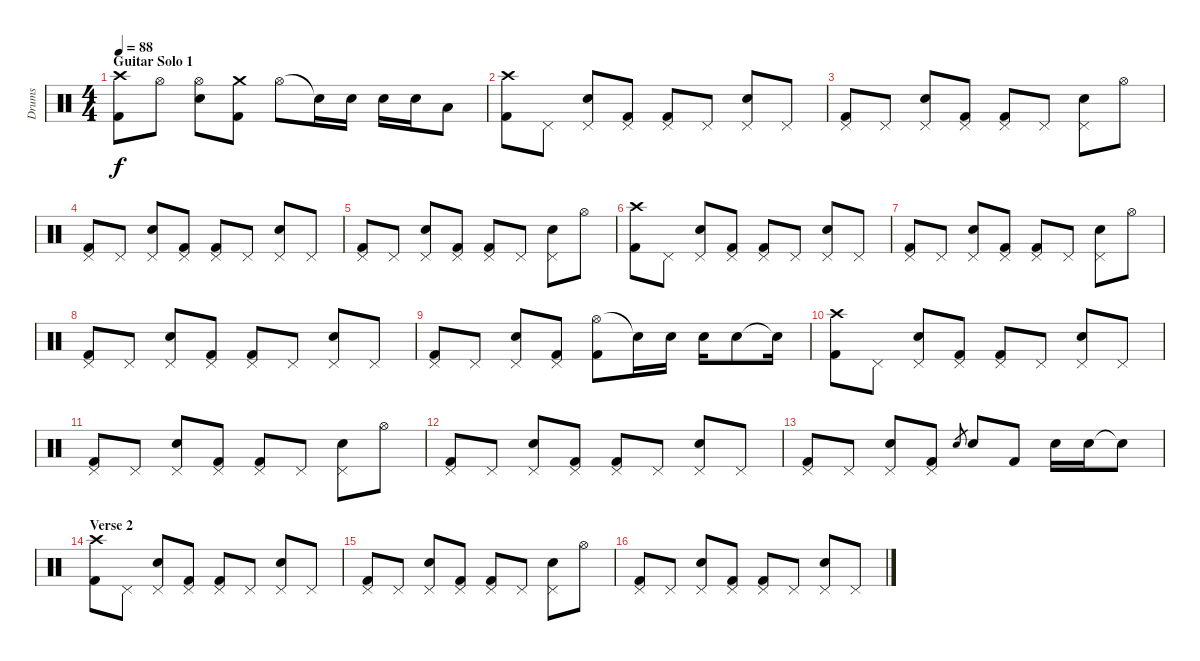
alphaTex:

\track ("Drums" "Drums") {instrument percussion}
\staff {score}
\articulation defaults
\ts (4 4)
\section ("" "Guitar Solo 1")
\tempo 88
\clef neutral
\ks c
("Crash high (hit)" "Kick (hit) 2").8{dy f} "Hi-Hat (open)".8 ("Hi-Hat (open)" "Electric Snare (hit)").8 ("Crash medium (hit)" "Kick (hit) 2").8 "Hi-Hat (open)".8 "Snare (hit)"{t}.16 "Electric Snare (hit)".16 "Electric Snare (hit)".16 "Electric Snare (hit)".16 "Low Tom (hit)".8 |
("Crash high (hit)" "Kick (hit) 2").8 "Pedal Hi-Hat (hit)".8 ("Pedal Hi-Hat (hit)" "Electric Snare (hit)").8 ("Pedal Hi-Hat (hit)" "Kick (hit) 2").8 ("Pedal Hi-Hat (hit)" "Kick (hit) 2").8 "Pedal Hi-Hat (hit)".8 ("Pedal Hi-Hat (hit)" "Electric Snare (hit)").8 "Pedal Hi-Hat (hit)".8 |
("Pedal Hi-Hat (hit)" "Kick (hit) 2").8 "Pedal Hi-Hat (hit)".8 ("Pedal Hi-Hat (hit)" "Electric Snare (hit)").8 ("Pedal Hi-Hat (hit)" "Kick (hit) 2").8 ("Pedal Hi-Hat (hit)" "Kick (hit) 2").8 "Pedal Hi-Hat (hit)".8 ("Pedal Hi-Hat (hit)" "Electric Snare (hit)").8 "Hi-Hat (open)".8 |
("Pedal Hi-Hat (hit)" "Kick (hit) 2").8 "Pedal Hi-Hat (hit)".8 ("Pedal Hi-Hat (hit)" "Electric Snare (hit)").8 ("Pedal Hi-Hat (hit)" "Kick (hit) 2").8 ("Pedal Hi-Hat (hit)" "Kick (hit) 2").8 "Pedal Hi-Hat (hit)".8 ("Pedal Hi-Hat (hit)" "Electric Snare (hit)").8 "Pedal Hi-Hat (hit)".8 |
("Pedal Hi-Hat (hit)" "Kick (hit) 2").8 "Pedal Hi-Hat (hit)".8 ("Pedal Hi-Hat (hit)" "Electric Snare (hit)").8 ("Pedal Hi-Hat (hit)" "Kick (hit) 2").8 ("Pedal Hi-Hat (hit)" "Kick (hit) 2").8 "Pedal Hi-Hat (hit)".8 ("Pedal Hi-Hat (hit)" "Electric Snare (hit)").8 "Hi-Hat (open)".8 |
("Crash high (hit)" "Kick (hit) 2").8 "Pedal Hi-Hat (hit)".8 ("Pedal Hi-Hat (hit)" "Electric Snare (hit)").8 ("Pedal Hi-Hat (hit)" "Kick (hit) 2").8 ("Pedal Hi-Hat (hit)" "Kick (hit) 2").8 "Pedal Hi-Hat (hit)".8 ("Pedal Hi-Hat (hit)" "Electric Snare (hit)").8 "Pedal Hi-Hat (hit)".8 |
("Pedal Hi-Hat (hit)" "Kick (hit) 2").8 "Pedal Hi-Hat (hit)".8 ("Pedal Hi-Hat (hit)" "Electric Snare (hit)").8 ("Pedal Hi-Hat (hit)" "Kick (hit) 2").8 ("Pedal Hi-Hat (hit)" "Kick (hit) 2").8 "Pedal Hi-Hat (hit)".8 ("Pedal Hi-Hat (hit)" "Electric Snare (hit)").8 "Hi-Hat (open)".8 |
("Pedal Hi-Hat (hit)" "Kick (hit) 2").8 "Pedal Hi-Hat (hit)".8 ("Pedal Hi-Hat (hit)" "Electric Snare (hit)").8 ("Pedal Hi-Hat (hit)" "Kick (hit) 2").8 ("Pedal Hi-Hat (hit)" "Kick (hit) 2").8 "Pedal Hi-Hat (hit)".8 ("Pedal Hi-Hat (hit)" "Electric Snare (hit)").8 "Pedal Hi-Hat (hit)".8 |
("Pedal Hi-Hat (hit)" "Kick (hit) 2").8 "Pedal Hi-Hat (hit)".8 ("Pedal Hi-Hat (hit)" "Electric Snare (hit)").8 ("Pedal Hi-Hat (hit)" "Kick (hit) 2").8 ("Hi-Hat (open)" "Kick (hit) 2").8 "Snare (hit)"{t}.16 "Electric Snare (hit)".16 "Electric Snare (hit)".16 "Electric Snare (hit)".8 "Snare (hit)"{t}.16 |
("Crash high (hit)" "Kick (hit) 2").8 "Pedal Hi-Hat (hit)".8 ("Pedal Hi-Hat (hit)" "Electric Snare (hit)").8 ("Pedal Hi-Hat (hit)" "Kick (hit) 2").8 ("Pedal Hi-Hat (hit)" "Kick (hit) 2").8 "Pedal Hi-Hat (hit)".8 ("Pedal Hi-Hat (hit)" "Electric Snare (hit)").8 "Pedal Hi-Hat (hit)".8 |
("Pedal Hi-Hat (hit)" "Kick (hit) 2").8 "Pedal Hi-Hat (hit)".8 ("Pedal Hi-Hat (hit)" "Electric Snare (hit)").8 ("Pedal Hi-Hat (hit)" "Kick (hit) 2").8 ("Pedal Hi-Hat (hit)" "Kick (hit) 2").8 "Pedal Hi-Hat (hit)".8 ("Pedal Hi-Hat (hit)" "Electric Snare (hit)").8 "Hi-Hat (open)".8 |
("Pedal Hi-Hat (hit)" "Kick (hit) 2").8 "Pedal Hi-Hat (hit)".8 ("Pedal Hi-Hat (hit)" "Electric Snare (hit)").8 ("Pedal Hi-Hat (hit)" "Kick (hit) 2").8 ("Pedal Hi-Hat (hit)" "Kick (hit) 2").8 "Pedal Hi-Hat (hit)".8 ("Pedal Hi-Hat (hit)" "Electric Snare (hit)").8 "Pedal Hi-Hat (hit)".8 |
("Pedal Hi-Hat (hit)" "Kick (hit) 2").8 "Pedal Hi-Hat (hit)".8 ("Pedal Hi-Hat (hit)" "Electric Snare (hit)").8 ("Pedal Hi-Hat (hit)" "Kick (hit) 2").8 "Electric Snare (hit)".8{gr} "Electric Snare (hit)".8 "Kick (hit) 2".8 "Electric Snare (hit)".16 "Electric Snare (hit)".16 "Snare (hit)"{t}.8 |
\section ("" "Verse 2")
("Crash high (hit)" "Kick (hit) 2").8 "Pedal Hi-Hat (hit)".8 ("Pedal Hi-Hat (hit)" "Electric Snare (hit)").8 ("Pedal Hi-Hat (hit)" "Kick (hit) 2").8 ("Pedal Hi-Hat (hit)" "Kick (hit) 2").8 "Pedal Hi-Hat (hit)".8 ("Pedal Hi-Hat (hit)" "Electric Snare (hit)").8 "Pedal Hi-Hat (hit)".8 |
("Pedal Hi-Hat (hit)" "Kick (hit) 2").8 "Pedal Hi-Hat (hit)".8 ("Pedal Hi-Hat (hit)" "Electric Snare (hit)").8 ("Pedal Hi-Hat (hit)" "Kick (hit) 2").8 ("Pedal Hi-Hat (hit)" "Kick (hit) 2").8 "Pedal Hi-Hat (hit)".8 ("Pedal Hi-Hat (hit)" "Electric Snare (hit)").8 "Hi-Hat (open)".8 |
("Pedal Hi-Hat (hit)" "Kick (hit) 2").8 "Pedal Hi-Hat (hit)".8 ("Pedal Hi-Hat (hit)" "Electric Snare (hit)").8 ("Pedal Hi-Hat (hit)" "Kick (hit) 2").8 ("Pedal Hi-Hat (hit)" "Kick (hit) 2").8 "Pedal Hi-Hat (hit)".8 ("Pedal Hi-Hat (hit)" "Electric Snare (hit)").8 "Pedal Hi-Hat (hit)".8
